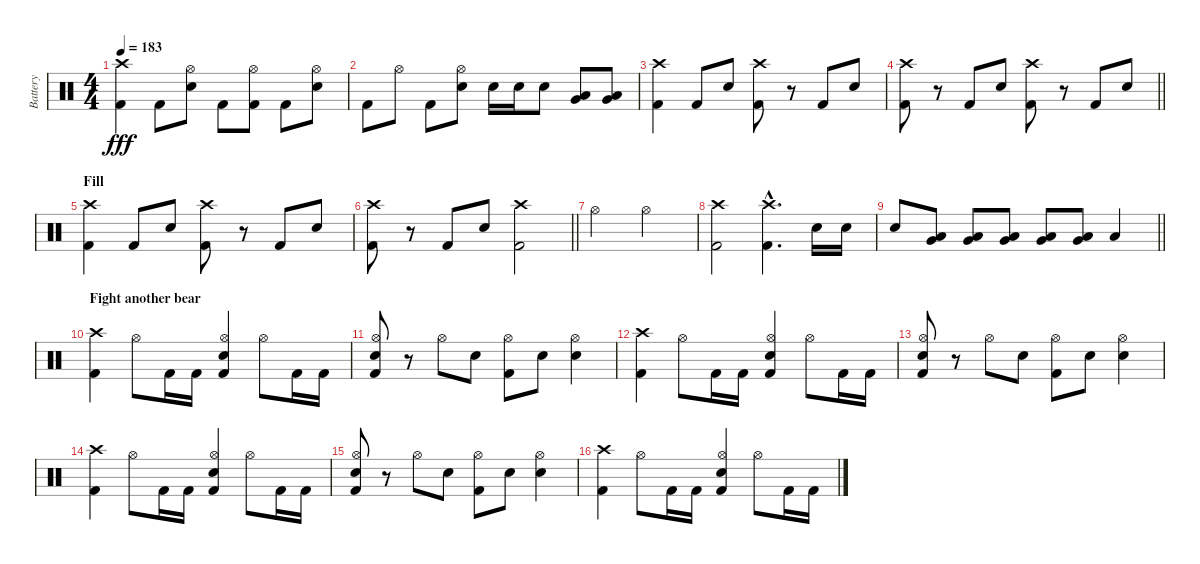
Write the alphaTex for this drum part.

\track ("Battery" "Battery") {instrument percussion}
\staff {score}
\articulation defaults
\ts (4 4)
\tempo 183
\clef neutral
\ks c
("Crash high (hit)" "Kick (hit) 2").4{dy fff} "Kick (hit) 2".8 ("Hi-Hat (open)" "Electric Snare (hit)").8 "Kick (hit) 2".8 ("Hi-Hat (open)" "Kick (hit) 2").8 "Kick (hit) 2".8 ("Hi-Hat (open)" "Electric Snare (hit)").8 |
"Kick (hit) 2".8 "Hi-Hat (open)".8 "Kick (hit) 2".8 ("Hi-Hat (open)" "Electric Snare (hit)").8 "Electric Snare (hit)".16 "Electric Snare (hit)".16 "Electric Snare (hit)".8 ("Low Tom (hit)" "Very Low Tom (hit)").8 ("Very Low Tom (hit)" "Low Floor Tom (hit)").8 |
("Crash high (hit)" "Kick (hit) 2").4 "Kick (hit) 2".8 "Electric Snare (hit)".8 ("Crash high (hit)" "Kick (hit) 2").8 r.8 "Kick (hit) 2".8 "Electric Snare (hit)".8 |
\barLineRight lightlight
("Crash high (hit)" "Kick (hit) 2").8 r.8 "Kick (hit) 2".8 "Electric Snare (hit)".8 ("Crash high (hit)" "Kick (hit) 2").8 r.8 "Kick (hit) 2".8 "Electric Snare (hit)".8 |
\section ("" "Fill")
("Crash high (hit)" "Kick (hit) 2").4 "Kick (hit) 2".8 "Electric Snare (hit)".8 ("Crash high (hit)" "Kick (hit) 2").8 r.8 "Kick (hit) 2".8 "Electric Snare (hit)".8 |
\barLineRight lightlight
("Crash high (hit)" "Kick (hit) 2").8 r.8 "Kick (hit) 2".8 "Electric Snare (hit)".8 ("Crash high (hit)" "Kick (hit) 2").2 |
"Hi-Hat (open)".2 "Hi-Hat (open)".2 |
("Crash high (hit)" "Kick (hit) 2").2 ("Crash high (hit)"{hac} "Kick (hit) 2"{hac}).4{d} "Electric Snare (hit)".16 "Electric Snare (hit)".16 |
\barLineRight lightlight "Electric Snare (hit)".8
("Low Tom (hit)" "Very Low Tom (hit)").8 ("Low Tom (hit)" "Very Low Tom (hit)").8 ("Very Low Tom (hit)" "Low Floor Tom (hit)").8 ("Very Low Tom (hit)" "Low Floor Tom (hit)").8 ("Very Low Tom (hit)" "Low Floor Tom (hit)").8 "Low Floor Tom (hit)".4 |
\section ("" "Fight another bear")
("Crash high (hit)" "Kick (hit) 2").4 "Hi-Hat (open)".8 "Kick (hit) 2".16 "Kick (hit) 2".16 ("Hi-Hat (open)" "Electric Snare (hit)" "Kick (hit) 2").4 "Hi-Hat (open)".8 "Kick (hit) 2".16 "Kick (hit) 2".16 |
("Hi-Hat (open)" "Electric Snare (hit)" "Kick (hit) 2").8 r.8 "Hi-Hat (open)".8 "Electric Snare (hit)".8 ("Hi-Hat (open)" "Kick (hit) 2").8 "Electric Snare (hit)".8 ("Hi-Hat (open)" "Electric Snare (hit)").4 |
("Crash high (hit)" "Kick (hit) 2").4 "Hi-Hat (open)".8 "Kick (hit) 2".16 "Kick (hit) 2".16 ("Hi-Hat (open)" "Electric Snare (hit)" "Kick (hit) 2").4 "Hi-Hat (open)".8 "Kick (hit) 2".16 "Kick (hit) 2".16 |
("Hi-Hat (open)" "Electric Snare (hit)" "Kick (hit) 2").8 r.8 "Hi-Hat (open)".8 "Electric Snare (hit)".8 ("Hi-Hat (open)" "Kick (hit) 2").8 "Electric Snare (hit)".8 ("Hi-Hat (open)" "Electric Snare (hit)").4 |
("Crash high (hit)" "Kick (hit) 2").4 "Hi-Hat (open)".8 "Kick (hit) 2".16 "Kick (hit) 2".16 ("Hi-Hat (open)" "Electric Snare (hit)" "Kick (hit) 2").4 "Hi-Hat (open)".8 "Kick (hit) 2".16 "Kick (hit) 2".16 |
("Hi-Hat (open)" "Electric Snare (hit)" "Kick (hit) 2").8 r.8 "Hi-Hat (open)".8 "Electric Snare (hit)".8 ("Hi-Hat (open)" "Kick (hit) 2").8 "Electric Snare (hit)".8 ("Hi-Hat (open)" "Electric Snare (hit)").4 |
("Crash high (hit)" "Kick (hit) 2").4 "Hi-Hat (open)".8 "Kick (hit) 2".16 "Kick (hit) 2".16 ("Hi-Hat (open)" "Electric Snare (hit)" "Kick (hit) 2").4 "Hi-Hat (open)".8 "Kick (hit) 2".16 "Kick (hit) 2".16
